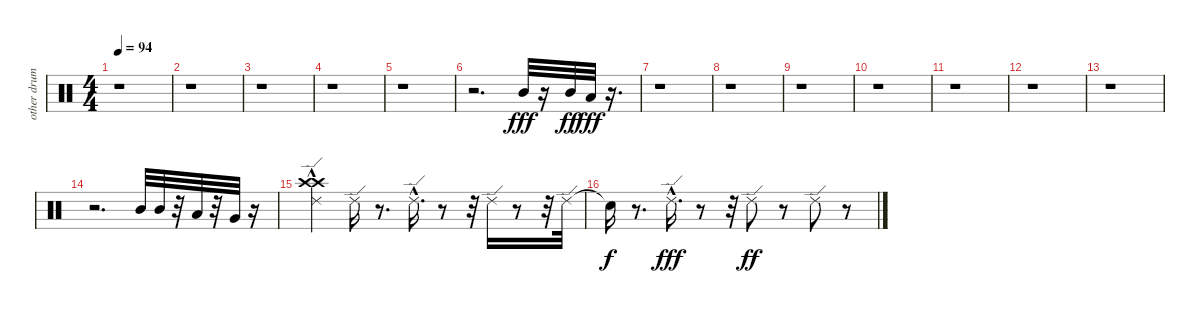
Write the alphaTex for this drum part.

\track ("other drums" "other drum") {instrument percussion}
\staff {score}
\articulation defaults
\ts (4 4)
\tempo 94
\clef neutral
\ks c
r.1{dy fff} |
r.1 |
r.1 |
r.1 |
r.1 |
r.2{d} "Mid Tom (hit)".32 r.16 "Mid Tom (hit)".32{dy ff} "Low Tom (hit)".32{dy fff} r.16{d} |
r.1 |
r.1 |
r.1 |
r.1 |
r.1 |
r.1 |
r.1 |
r.2{d} "Mid Tom (hit)".32 "Mid Tom (hit)".32 r.32 "Low Tom (hit)".32 r.32 "Very Low Tom (hit)".32 r.16 |
("Crash high (hit)" "Crash high (hit)" "Ride (edge) 2"{hac}).4 "Ride (edge) 2".16 r.8{d} "Ride (edge) 2"{hac}.16{d} r.8 r.32 "Ride (edge) 2".16 r.8 r.32 "Ride (edge) 2".32 |
"Snare (hit)"{t}.16{dy f} r.8{d} "Ride (edge) 2"{hac}.16{d dy fff} r.8 r.32 "Ride (edge) 2".8{dy ff} r.8 "Ride (edge) 2".8 r.8
